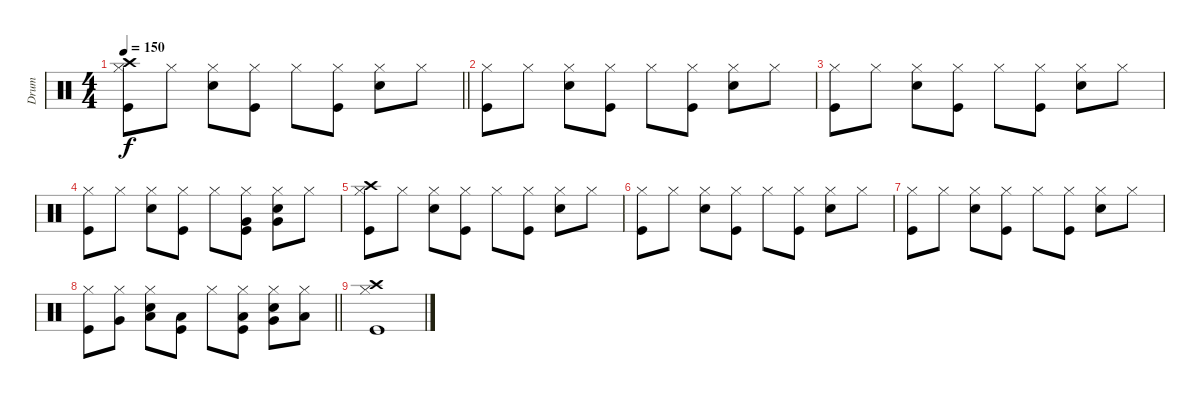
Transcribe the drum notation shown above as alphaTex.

\track ("Drum" "Drum") {instrument percussion}
\staff {score}
\articulation defaults
\ts (4 4)
\tempo 150
\clef neutral
\barLineRight lightlight
\ks c
("Kick (hit)" "Hi-Hat (closed)" "Crash high (hit)").8{dy f} "Hi-Hat (closed)".8 ("Snare (hit) 2" "Hi-Hat (closed)").8 ("Kick (hit)" "Hi-Hat (closed)").8 "Hi-Hat (closed)".8 ("Kick (hit)" "Hi-Hat (closed)").8 ("Snare (hit) 2" "Hi-Hat (closed)").8 "Hi-Hat (closed)".8 |
("Kick (hit)" "Hi-Hat (closed)").8 "Hi-Hat (closed)".8 ("Snare (hit) 2" "Hi-Hat (closed)").8 ("Kick (hit)" "Hi-Hat (closed)").8 "Hi-Hat (closed)".8 ("Kick (hit)" "Hi-Hat (closed)").8 ("Snare (hit) 2" "Hi-Hat (closed)").8 "Hi-Hat (closed)".8 |
("Kick (hit)" "Hi-Hat (closed)").8 "Hi-Hat (closed)".8 ("Snare (hit) 2" "Hi-Hat (closed)").8 ("Kick (hit)" "Hi-Hat (closed)").8 "Hi-Hat (closed)".8 ("Kick (hit)" "Hi-Hat (closed)").8 ("Snare (hit) 2" "Hi-Hat (closed)").8 "Hi-Hat (closed)".8 |
("Kick (hit)" "Hi-Hat (closed)").8 "Hi-Hat (closed)".8 ("Snare (hit) 2" "Hi-Hat (closed)").8 ("Kick (hit)" "Hi-Hat (closed)").8 "Hi-Hat (closed)".8 ("Kick (hit)" "Hi-Hat (closed)" "Very Low Tom (hit)").8 ("Snare (hit) 2" "Hi-Hat (closed)" "Very Low Tom (hit)").8 "Hi-Hat (closed)".8 |
("Kick (hit)" "Hi-Hat (closed)" "Crash high (hit)").8 "Hi-Hat (closed)".8 ("Snare (hit) 2" "Hi-Hat (closed)").8 ("Kick (hit)" "Hi-Hat (closed)").8 "Hi-Hat (closed)".8 ("Kick (hit)" "Hi-Hat (closed)").8 ("Snare (hit) 2" "Hi-Hat (closed)").8 "Hi-Hat (closed)".8 |
("Kick (hit)" "Hi-Hat (closed)").8 "Hi-Hat (closed)".8 ("Snare (hit) 2" "Hi-Hat (closed)").8 ("Kick (hit)" "Hi-Hat (closed)").8 "Hi-Hat (closed)".8 ("Kick (hit)" "Hi-Hat (closed)").8 ("Snare (hit) 2" "Hi-Hat (closed)").8 "Hi-Hat (closed)".8 |
("Kick (hit)" "Hi-Hat (closed)").8 "Hi-Hat (closed)".8 ("Snare (hit) 2" "Hi-Hat (closed)").8 ("Kick (hit)" "Hi-Hat (closed)").8 "Hi-Hat (closed)".8 ("Kick (hit)" "Hi-Hat (closed)").8 ("Snare (hit) 2" "Hi-Hat (closed)").8 "Hi-Hat (closed)".8 |
\barLineRight lightlight
("Kick (hit)" "Hi-Hat (closed)").8 ("Hi-Hat (closed)" "Very Low Tom (hit)").8 ("Snare (hit) 2" "Hi-Hat (closed)" "Low Tom (hit)").8 ("Kick (hit)" "Low Tom (hit)").8 "Hi-Hat (closed)".8 ("Kick (hit)" "Hi-Hat (closed)" "Low Tom (hit)").8 ("Snare (hit) 2" "Hi-Hat (closed)" "Very Low Tom (hit)").8 ("Hi-Hat (closed)" "Low Floor Tom (hit)").8 |
("Kick (hit)" "Hi-Hat (closed)" "Crash high (hit)").1
